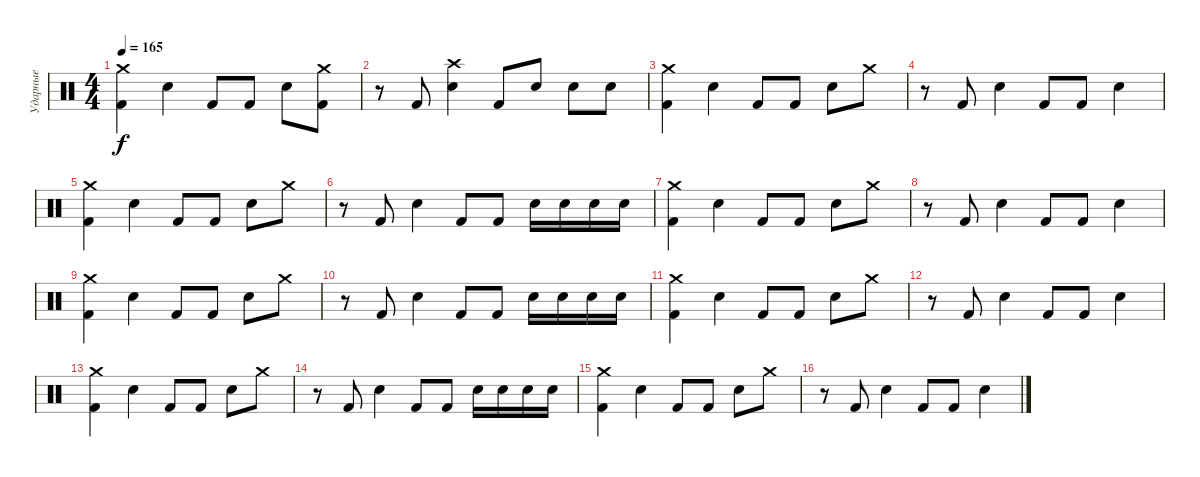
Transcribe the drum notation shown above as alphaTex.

\track ("Ударные" "Ударные") {instrument percussion}
\staff {score}
\articulation defaults
\ts (4 4)
\tempo 165
\clef neutral
\ks c
("Crash medium (hit)" "Kick (hit) 2").4{dy f} "Snare (hit) 2".4 "Kick (hit) 2".8 "Kick (hit) 2".8 "Snare (hit) 2".8 ("Crash medium (hit)" "Kick (hit) 2").8 |
r.8 "Kick (hit) 2".8 ("Crash high (hit)" "Snare (hit) 2").4 "Kick (hit) 2".8 "Snare (hit) 2".8 "Snare (hit) 2".8 "Snare (hit) 2".8 |
("Crash medium (hit)" "Kick (hit) 2").4 "Snare (hit) 2".4 "Kick (hit) 2".8 "Kick (hit) 2".8 "Snare (hit) 2".8 "Crash medium (hit)".8 |
r.8 "Kick (hit) 2".8 "Snare (hit) 2".4 "Kick (hit) 2".8 "Kick (hit) 2".8 "Snare (hit) 2".4 |
("Crash medium (hit)" "Kick (hit) 2").4 "Snare (hit) 2".4 "Kick (hit) 2".8 "Kick (hit) 2".8 "Snare (hit) 2".8 "Crash medium (hit)".8 |
r.8 "Kick (hit) 2".8 "Snare (hit) 2".4 "Kick (hit) 2".8 "Kick (hit) 2".8 "Snare (hit) 2".16 "Snare (hit) 2".16 "Snare (hit) 2".16 "Snare (hit) 2".16 |
("Crash medium (hit)" "Kick (hit) 2").4 "Snare (hit) 2".4 "Kick (hit) 2".8 "Kick (hit) 2".8 "Snare (hit) 2".8 "Crash medium (hit)".8 |
r.8 "Kick (hit) 2".8 "Snare (hit) 2".4 "Kick (hit) 2".8 "Kick (hit) 2".8 "Snare (hit) 2".4 |
("Crash medium (hit)" "Kick (hit) 2").4 "Snare (hit) 2".4 "Kick (hit) 2".8 "Kick (hit) 2".8 "Snare (hit) 2".8 "Crash medium (hit)".8 |
r.8 "Kick (hit) 2".8 "Snare (hit) 2".4 "Kick (hit) 2".8 "Kick (hit) 2".8 "Snare (hit) 2".16 "Snare (hit) 2".16 "Snare (hit) 2".16 "Snare (hit) 2".16 |
("Crash medium (hit)" "Kick (hit) 2").4 "Snare (hit) 2".4 "Kick (hit) 2".8 "Kick (hit) 2".8 "Snare (hit) 2".8 "Crash medium (hit)".8 |
r.8 "Kick (hit) 2".8 "Snare (hit) 2".4 "Kick (hit) 2".8 "Kick (hit) 2".8 "Snare (hit) 2".4 |
("Crash medium (hit)" "Kick (hit) 2").4 "Snare (hit) 2".4 "Kick (hit) 2".8 "Kick (hit) 2".8 "Snare (hit) 2".8 "Crash medium (hit)".8 |
r.8 "Kick (hit) 2".8 "Snare (hit) 2".4 "Kick (hit) 2".8 "Kick (hit) 2".8 "Snare (hit) 2".16 "Snare (hit) 2".16 "Snare (hit) 2".16 "Snare (hit) 2".16 |
("Crash medium (hit)" "Kick (hit) 2").4 "Snare (hit) 2".4 "Kick (hit) 2".8 "Kick (hit) 2".8 "Snare (hit) 2".8 "Crash medium (hit)".8 |
r.8 "Kick (hit) 2".8 "Snare (hit) 2".4 "Kick (hit) 2".8 "Kick (hit) 2".8 "Snare (hit) 2".4
